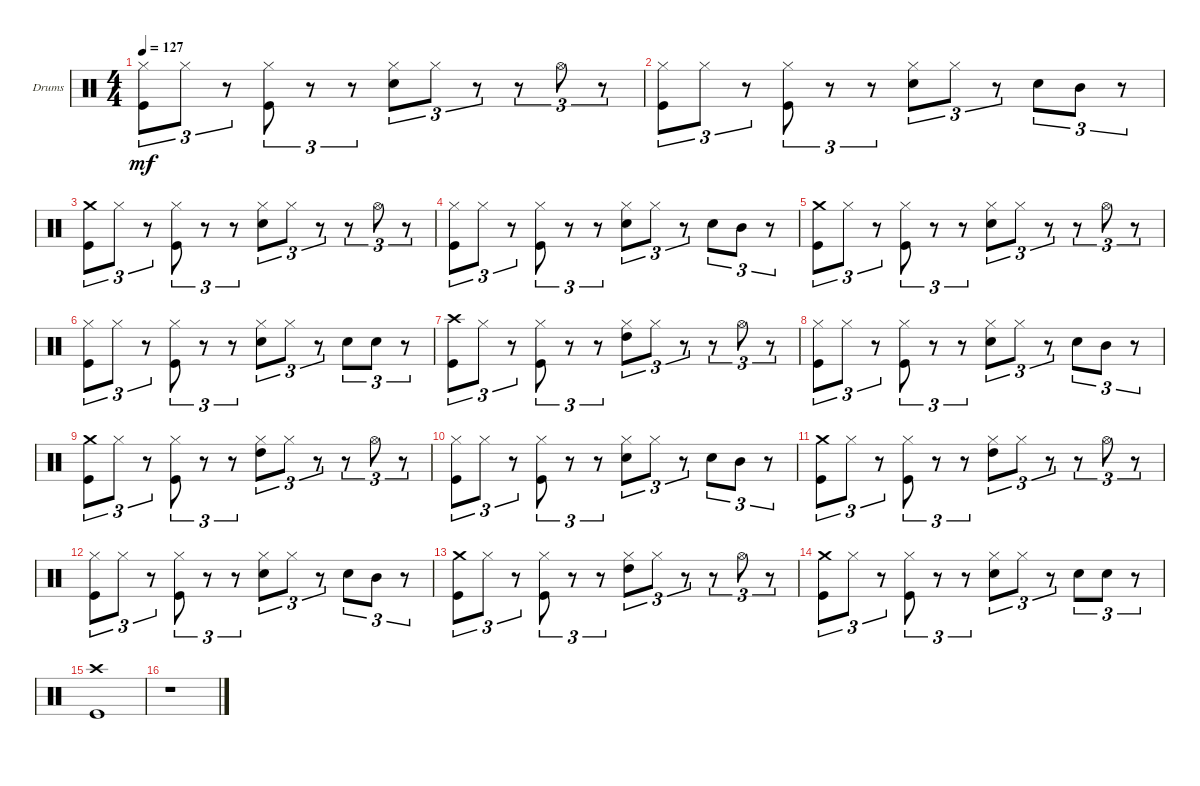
\bracketExtendMode groupsimilarinstruments
\firstSystemTrackNameOrientation horizontal
\otherSystemsTrackNameOrientation horizontal
\track ("Drumkit" "Drums") {instrument percussion}
\staff {score}
\articulation defaults
\ts (4 4)
\tempo 127
\clef neutral
\ks c
("Kick (hit)" "Hi-Hat (closed)").8{tu (3 2) dy mf} "Hi-Hat (closed)".8{tu (3 2)} r.8{tu (3 2)} ("Hi-Hat (closed)" "Kick (hit)").8{tu (3 2)} r.8{tu (3 2)} r.8{tu (3 2)} ("Snare (hit) 2" "Hi-Hat (closed)").8{tu (3 2)} "Hi-Hat (closed)".8{tu (3 2)} r.8{tu (3 2)} r.8{tu (3 2)} "Hi-Hat (open)".8{tu (3 2)} r.8{tu (3 2)} |
("Kick (hit)" "Hi-Hat (closed)").8{tu (3 2)} "Hi-Hat (closed)".8{tu (3 2)} r.8{tu (3 2)} ("Hi-Hat (closed)" "Kick (hit)").8{tu (3 2)} r.8{tu (3 2)} r.8{tu (3 2)} ("Hi-Hat (closed)" "Snare (hit) 2").8{tu (3 2)} "Hi-Hat (closed)".8{tu (3 2)} r.8{tu (3 2)} "Snare (hit) 2".8{tu (3 2)} "Mid Tom (hit)".8{tu (3 2)} r.8{tu (3 2)} |
("Kick (hit)" "Crash medium (hit)").8{tu (3 2)} "Hi-Hat (closed)".8{tu (3 2)} r.8{tu (3 2)} ("Hi-Hat (closed)" "Kick (hit)").8{tu (3 2)} r.8{tu (3 2)} r.8{tu (3 2)} ("Snare (hit) 2" "Hi-Hat (closed)").8{tu (3 2)} "Hi-Hat (closed)".8{tu (3 2)} r.8{tu (3 2)} r.8{tu (3 2)} "Hi-Hat (open)".8{tu (3 2)} r.8{tu (3 2)} |
("Kick (hit)" "Hi-Hat (closed)").8{tu (3 2)} "Hi-Hat (closed)".8{tu (3 2)} r.8{tu (3 2)} ("Hi-Hat (closed)" "Kick (hit)").8{tu (3 2)} r.8{tu (3 2)} r.8{tu (3 2)} ("Hi-Hat (closed)" "Snare (hit) 2").8{tu (3 2)} "Hi-Hat (closed)".8{tu (3 2)} r.8{tu (3 2)} "Snare (hit) 2".8{tu (3 2)} "Mid Tom (hit)".8{tu (3 2)} r.8{tu (3 2)} |
("Kick (hit)" "Crash medium (hit)").8{tu (3 2)} "Hi-Hat (closed)".8{tu (3 2)} r.8{tu (3 2)} ("Hi-Hat (closed)" "Kick (hit)").8{tu (3 2)} r.8{tu (3 2)} r.8{tu (3 2)} ("Snare (hit) 2" "Hi-Hat (closed)").8{tu (3 2)} "Hi-Hat (closed)".8{tu (3 2)} r.8{tu (3 2)} r.8{tu (3 2)} "Hi-Hat (open)".8{tu (3 2)} r.8{tu (3 2)} |
("Kick (hit)" "Hi-Hat (closed)").8{tu (3 2)} "Hi-Hat (closed)".8{tu (3 2)} r.8{tu (3 2)} ("Hi-Hat (closed)" "Kick (hit)").8{tu (3 2)} r.8{tu (3 2)} r.8{tu (3 2)} ("Hi-Hat (closed)" "Snare (hit) 2").8{tu (3 2)} "Hi-Hat (closed)".8{tu (3 2)} r.8{tu (3 2)} "Snare (hit) 2".8{tu (3 2)} "Snare (hit) 2".8{tu (3 2)} r.8{tu (3 2)} |
("Kick (hit)" "Crash high (hit)").8{tu (3 2)} "Hi-Hat (closed)".8{tu (3 2)} r.8{tu (3 2)} ("Hi-Hat (closed)" "Kick (hit)").8{tu (3 2)} r.8{tu (3 2)} r.8{tu (3 2)} ("Hi-Hat (closed)" "High Tom (hit)").8{tu (3 2)} "Hi-Hat (closed)".8{tu (3 2)} r.8{tu (3 2)} r.8{tu (3 2)} "Hi-Hat (open)".8{tu (3 2)} r.8{tu (3 2)} |
("Kick (hit)" "Hi-Hat (closed)").8{tu (3 2)} "Hi-Hat (closed)".8{tu (3 2)} r.8{tu (3 2)} ("Hi-Hat (closed)" "Kick (hit)").8{tu (3 2)} r.8{tu (3 2)} r.8{tu (3 2)} ("Hi-Hat (closed)" "Snare (hit) 2").8{tu (3 2)} "Hi-Hat (closed)".8{tu (3 2)} r.8{tu (3 2)} "Snare (hit) 2".8{tu (3 2)} "Mid Tom (hit)".8{tu (3 2)} r.8{tu (3 2)} |
("Kick (hit)" "Crash medium (hit)").8{tu (3 2)} "Hi-Hat (closed)".8{tu (3 2)} r.8{tu (3 2)} ("Hi-Hat (closed)" "Kick (hit)").8{tu (3 2)} r.8{tu (3 2)} r.8{tu (3 2)} ("Hi-Hat (closed)" "High Tom (hit)").8{tu (3 2)} "Hi-Hat (closed)".8{tu (3 2)} r.8{tu (3 2)} r.8{tu (3 2)} "Hi-Hat (open)".8{tu (3 2)} r.8{tu (3 2)} |
("Kick (hit)" "Hi-Hat (closed)").8{tu (3 2)} "Hi-Hat (closed)".8{tu (3 2)} r.8{tu (3 2)} ("Hi-Hat (closed)" "Kick (hit)").8{tu (3 2)} r.8{tu (3 2)} r.8{tu (3 2)} ("Hi-Hat (closed)" "Snare (hit) 2").8{tu (3 2)} "Hi-Hat (closed)".8{tu (3 2)} r.8{tu (3 2)} "Snare (hit) 2".8{tu (3 2)} "Mid Tom (hit)".8{tu (3 2)} r.8{tu (3 2)} |
("Kick (hit)" "Crash medium (hit)").8{tu (3 2)} "Hi-Hat (closed)".8{tu (3 2)} r.8{tu (3 2)} ("Hi-Hat (closed)" "Kick (hit)").8{tu (3 2)} r.8{tu (3 2)} r.8{tu (3 2)} ("Hi-Hat (closed)" "High Tom (hit)").8{tu (3 2)} "Hi-Hat (closed)".8{tu (3 2)} r.8{tu (3 2)} r.8{tu (3 2)} "Hi-Hat (open)".8{tu (3 2)} r.8{tu (3 2)} |
("Kick (hit)" "Hi-Hat (closed)").8{tu (3 2)} "Hi-Hat (closed)".8{tu (3 2)} r.8{tu (3 2)} ("Hi-Hat (closed)" "Kick (hit)").8{tu (3 2)} r.8{tu (3 2)} r.8{tu (3 2)} ("Hi-Hat (closed)" "Snare (hit) 2").8{tu (3 2)} "Hi-Hat (closed)".8{tu (3 2)} r.8{tu (3 2)} "Snare (hit) 2".8{tu (3 2)} "Mid Tom (hit)".8{tu (3 2)} r.8{tu (3 2)} |
("Kick (hit)" "Crash medium (hit)").8{tu (3 2)} "Hi-Hat (closed)".8{tu (3 2)} r.8{tu (3 2)} ("Hi-Hat (closed)" "Kick (hit)").8{tu (3 2)} r.8{tu (3 2)} r.8{tu (3 2)} ("Hi-Hat (closed)" "High Tom (hit)").8{tu (3 2)} "Hi-Hat (closed)".8{tu (3 2)} r.8{tu (3 2)} r.8{tu (3 2)} "Hi-Hat (open)".8{tu (3 2)} r.8{tu (3 2)} |
("Kick (hit)" "Crash medium (hit)").8{tu (3 2)} "Hi-Hat (closed)".8{tu (3 2)} r.8{tu (3 2)} ("Hi-Hat (closed)" "Kick (hit)").8{tu (3 2)} r.8{tu (3 2)} r.8{tu (3 2)} ("Hi-Hat (closed)" "Snare (hit) 2").8{tu (3 2)} "Hi-Hat (closed)".8{tu (3 2)} r.8{tu (3 2)} "Snare (hit) 2".8{tu (3 2)} "Snare (hit) 2".8{tu (3 2)} r.8{tu (3 2)} |
("Crash high (hit)" "Kick (hit)").1 |
r.1
